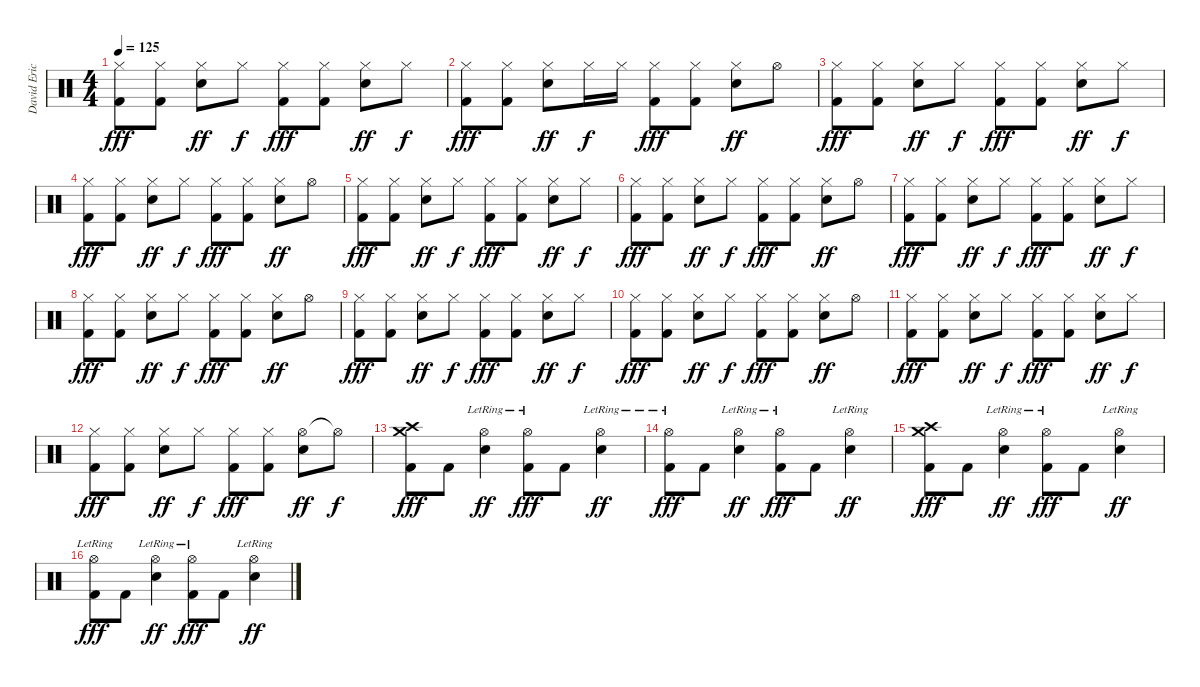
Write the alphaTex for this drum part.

\track ("David Eric Grohl" "David Eric") {instrument percussion}
\staff {score}
\articulation defaults
\ts (4 4)
\tempo 125
\clef neutral
\ks c
("Hi-Hat (closed)" "Kick (hit) 2").8{dy fff} ("Hi-Hat (closed)" "Kick (hit) 2").8 ("Hi-Hat (closed)" "Electric Snare (hit)").8{dy ff} "Hi-Hat (closed)".8{dy f} ("Hi-Hat (closed)" "Kick (hit) 2").8{dy fff} ("Hi-Hat (closed)" "Kick (hit) 2").8 ("Hi-Hat (closed)" "Electric Snare (hit)").8{dy ff} "Hi-Hat (closed)".8{dy f} |
("Hi-Hat (closed)" "Kick (hit) 2").8{dy fff} ("Hi-Hat (closed)" "Kick (hit) 2").8 ("Hi-Hat (closed)" "Electric Snare (hit)").8{dy ff} "Hi-Hat (closed)".16{dy f} "Hi-Hat (closed)".16 ("Hi-Hat (closed)" "Kick (hit) 2").8{dy fff} ("Hi-Hat (closed)" "Kick (hit) 2").8 ("Hi-Hat (closed)" "Electric Snare (hit)").8{dy ff} "Hi-Hat (open)".8 |
("Hi-Hat (closed)" "Kick (hit) 2").8{dy fff} ("Hi-Hat (closed)" "Kick (hit) 2").8 ("Hi-Hat (closed)" "Electric Snare (hit)").8{dy ff} "Hi-Hat (closed)".8{dy f} ("Hi-Hat (closed)" "Kick (hit) 2").8{dy fff} ("Hi-Hat (closed)" "Kick (hit) 2").8 ("Hi-Hat (closed)" "Electric Snare (hit)").8{dy ff} "Hi-Hat (closed)".8{dy f} |
("Hi-Hat (closed)" "Kick (hit) 2").8{dy fff} ("Hi-Hat (closed)" "Kick (hit) 2").8 ("Hi-Hat (closed)" "Electric Snare (hit)").8{dy ff} "Hi-Hat (closed)".8{dy f} ("Hi-Hat (closed)" "Kick (hit) 2").8{dy fff} ("Hi-Hat (closed)" "Kick (hit) 2").8 ("Hi-Hat (closed)" "Electric Snare (hit)").8{dy ff} "Hi-Hat (open)".8 |
("Hi-Hat (closed)" "Kick (hit) 2").8{dy fff} ("Hi-Hat (closed)" "Kick (hit) 2").8 ("Hi-Hat (closed)" "Electric Snare (hit)").8{dy ff} "Hi-Hat (closed)".8{dy f} ("Hi-Hat (closed)" "Kick (hit) 2").8{dy fff} ("Hi-Hat (closed)" "Kick (hit) 2").8 ("Hi-Hat (closed)" "Electric Snare (hit)").8{dy ff} "Hi-Hat (closed)".8{dy f} |
("Hi-Hat (closed)" "Kick (hit) 2").8{dy fff} ("Hi-Hat (closed)" "Kick (hit) 2").8 ("Hi-Hat (closed)" "Electric Snare (hit)").8{dy ff} "Hi-Hat (closed)".8{dy f} ("Hi-Hat (closed)" "Kick (hit) 2").8{dy fff} ("Hi-Hat (closed)" "Kick (hit) 2").8 ("Hi-Hat (closed)" "Electric Snare (hit)").8{dy ff} "Hi-Hat (open)".8 |
("Hi-Hat (closed)" "Kick (hit) 2").8{dy fff} ("Hi-Hat (closed)" "Kick (hit) 2").8 ("Hi-Hat (closed)" "Electric Snare (hit)").8{dy ff} "Hi-Hat (closed)".8{dy f} ("Hi-Hat (closed)" "Kick (hit) 2").8{dy fff} ("Hi-Hat (closed)" "Kick (hit) 2").8 ("Hi-Hat (closed)" "Electric Snare (hit)").8{dy ff} "Hi-Hat (closed)".8{dy f} |
("Hi-Hat (closed)" "Kick (hit) 2").8{dy fff} ("Hi-Hat (closed)" "Kick (hit) 2").8 ("Hi-Hat (closed)" "Electric Snare (hit)").8{dy ff} "Hi-Hat (closed)".8{dy f} ("Hi-Hat (closed)" "Kick (hit) 2").8{dy fff} ("Hi-Hat (closed)" "Kick (hit) 2").8 ("Hi-Hat (closed)" "Electric Snare (hit)").8{dy ff} "Hi-Hat (open)".8 |
("Hi-Hat (closed)" "Kick (hit) 2").8{dy fff} ("Hi-Hat (closed)" "Kick (hit) 2").8 ("Hi-Hat (closed)" "Electric Snare (hit)").8{dy ff} "Hi-Hat (closed)".8{dy f} ("Hi-Hat (closed)" "Kick (hit) 2").8{dy fff} ("Hi-Hat (closed)" "Kick (hit) 2").8 ("Hi-Hat (closed)" "Electric Snare (hit)").8{dy ff} "Hi-Hat (closed)".8{dy f} |
("Hi-Hat (closed)" "Kick (hit) 2").8{dy fff} ("Hi-Hat (closed)" "Kick (hit) 2").8 ("Hi-Hat (closed)" "Electric Snare (hit)").8{dy ff} "Hi-Hat (closed)".8{dy f} ("Hi-Hat (closed)" "Kick (hit) 2").8{dy fff} ("Hi-Hat (closed)" "Kick (hit) 2").8 ("Hi-Hat (closed)" "Electric Snare (hit)").8{dy ff} "Hi-Hat (open)".8 |
("Hi-Hat (closed)" "Kick (hit) 2").8{dy fff} ("Hi-Hat (closed)" "Kick (hit) 2").8 ("Hi-Hat (closed)" "Electric Snare (hit)").8{dy ff} "Hi-Hat (closed)".8{dy f} ("Hi-Hat (closed)" "Kick (hit) 2").8{dy fff} ("Hi-Hat (closed)" "Kick (hit) 2").8 ("Hi-Hat (closed)" "Electric Snare (hit)").8{dy ff} "Hi-Hat (closed)".8{dy f} |
("Hi-Hat (closed)" "Kick (hit) 2").8{dy fff} ("Hi-Hat (closed)" "Kick (hit) 2").8 ("Hi-Hat (closed)" "Electric Snare (hit)").8{dy ff} "Hi-Hat (closed)".8{dy f} ("Hi-Hat (closed)" "Kick (hit) 2").8{dy fff} ("Hi-Hat (closed)" "Kick (hit) 2").8 ("Hi-Hat (open)" "Electric Snare (hit)").8{dy ff} "Hi-Hat (open)"{t}.8{dy f} |
("Crash high (hit)" "Crash medium (hit)" "Kick (hit) 2").8{dy fff} "Kick (hit) 2".8 ("Hi-Hat (open)"{lr} "Electric Snare (hit)").4{dy ff} ("Hi-Hat (open)"{lr} "Kick (hit) 2").8{dy fff} "Kick (hit) 2".8 ("Hi-Hat (open)"{lr} "Electric Snare (hit)").4{dy ff} |
("Hi-Hat (open)"{lr} "Kick (hit) 2").8{dy fff} "Kick (hit) 2".8 ("Hi-Hat (open)"{lr} "Electric Snare (hit)").4{dy ff} ("Hi-Hat (open)"{lr} "Kick (hit) 2").8{dy fff} "Kick (hit) 2".8 ("Hi-Hat (open)"{lr} "Electric Snare (hit)").4{dy ff} |
("Crash high (hit)" "Crash medium (hit)" "Kick (hit) 2").8{dy fff} "Kick (hit) 2".8 ("Hi-Hat (open)"{lr} "Electric Snare (hit)").4{dy ff} ("Hi-Hat (open)"{lr} "Kick (hit) 2").8{dy fff} "Kick (hit) 2".8 ("Hi-Hat (open)"{lr} "Electric Snare (hit)").4{dy ff} |
("Hi-Hat (open)"{lr} "Kick (hit) 2").8{dy fff} "Kick (hit) 2".8 ("Hi-Hat (open)"{lr} "Electric Snare (hit)").4{dy ff} ("Hi-Hat (open)"{lr} "Kick (hit) 2").8{dy fff} "Kick (hit) 2".8 ("Hi-Hat (open)"{lr} "Electric Snare (hit)").4{dy ff}
